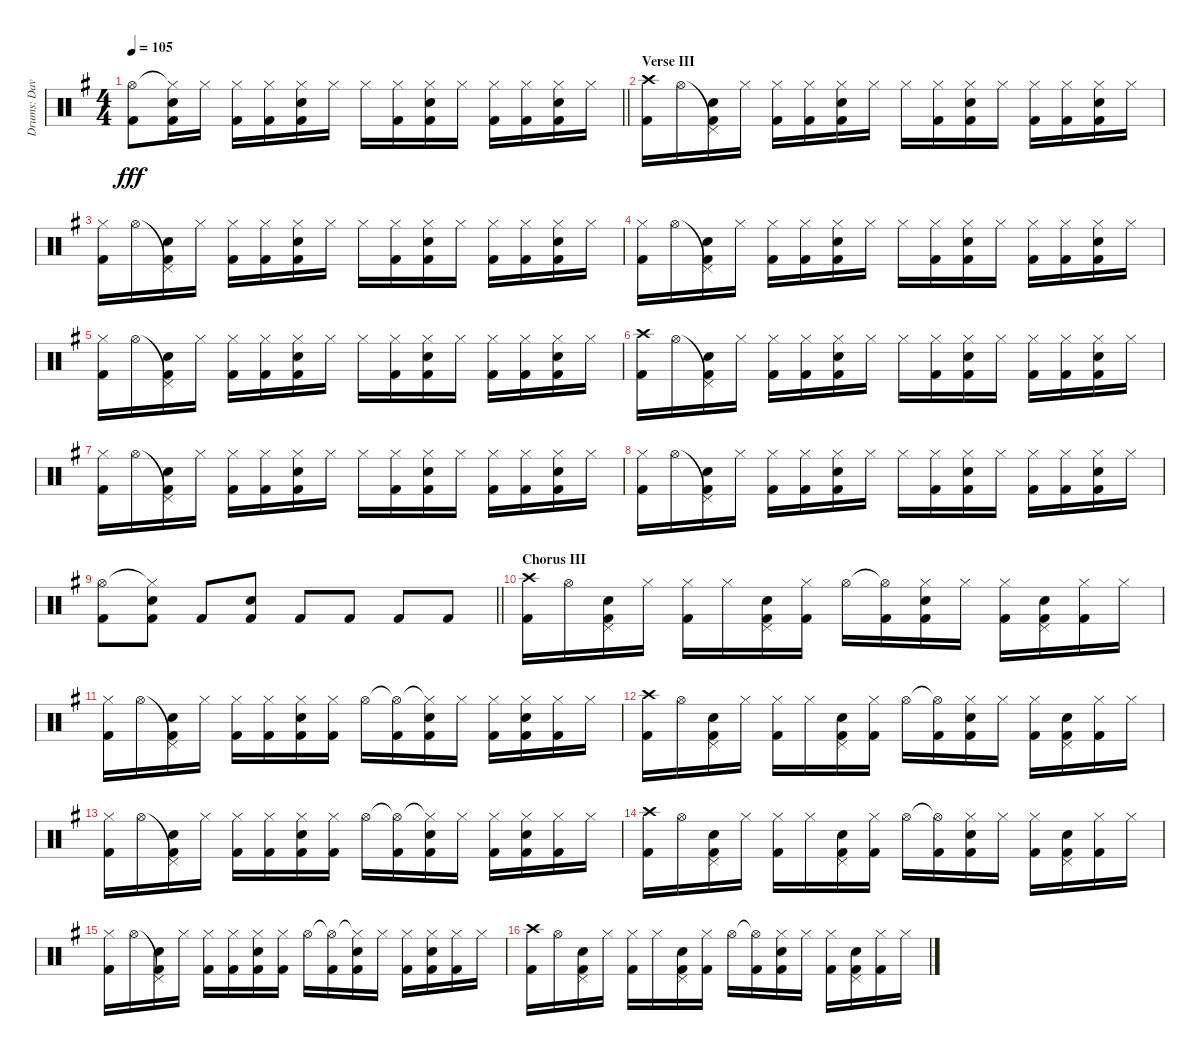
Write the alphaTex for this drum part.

\track ("Drums: Dave" "Drums: Dav") {instrument percussion}
\staff {score}
\articulation defaults
\ts (4 4)
\tempo 105
\clef neutral
\barLineRight lightlight
\ks g
("Hi-Hat (open)" "Kick (hit) 2").8{dy fff} ("Hi-Hat (closed)"{t} "Electric Snare (hit)" "Kick (hit) 2").16 "Hi-Hat (closed)".16 ("Hi-Hat (closed)" "Kick (hit) 2").16 ("Hi-Hat (closed)" "Kick (hit) 2").16 ("Hi-Hat (closed)" "Electric Snare (hit)" "Kick (hit) 2").16 "Hi-Hat (closed)".16 "Hi-Hat (closed)".16 ("Hi-Hat (closed)" "Kick (hit) 2").16 ("Hi-Hat (closed)" "Electric Snare (hit)" "Kick (hit) 2").16 "Hi-Hat (closed)".16 ("Hi-Hat (closed)" "Kick (hit) 2").16 ("Hi-Hat (closed)" "Kick (hit) 2").16 ("Hi-Hat (closed)" "Electric Snare (hit)" "Kick (hit) 2").16 "Hi-Hat (closed)".16 |
\section ("" "Verse III")
("Crash high (hit)" "Kick (hit) 2").16 "Hi-Hat (open)".16 ("Pedal Hi-Hat (hit)"{t} "Electric Snare (hit)" "Kick (hit) 2").16 "Hi-Hat (closed)".16 ("Hi-Hat (closed)" "Kick (hit) 2").16 ("Hi-Hat (closed)" "Kick (hit) 2").16 ("Hi-Hat (closed)" "Electric Snare (hit)" "Kick (hit) 2").16 "Hi-Hat (closed)".16 "Hi-Hat (closed)".16 ("Hi-Hat (closed)" "Kick (hit) 2").16 ("Hi-Hat (closed)" "Electric Snare (hit)" "Kick (hit) 2").16 "Hi-Hat (closed)".16 ("Hi-Hat (closed)" "Kick (hit) 2").16 ("Hi-Hat (closed)" "Kick (hit) 2").16 ("Hi-Hat (closed)" "Electric Snare (hit)" "Kick (hit) 2").16 "Hi-Hat (closed)".16 |
("Hi-Hat (closed)" "Kick (hit) 2").16 "Hi-Hat (open)".16 ("Pedal Hi-Hat (hit)"{t} "Electric Snare (hit)" "Kick (hit) 2").16 "Hi-Hat (closed)".16 ("Hi-Hat (closed)" "Kick (hit) 2").16 ("Hi-Hat (closed)" "Kick (hit) 2").16 ("Hi-Hat (closed)" "Electric Snare (hit)" "Kick (hit) 2").16 "Hi-Hat (closed)".16 "Hi-Hat (closed)".16 ("Hi-Hat (closed)" "Kick (hit) 2").16 ("Hi-Hat (closed)" "Electric Snare (hit)" "Kick (hit) 2").16 "Hi-Hat (closed)".16 ("Hi-Hat (closed)" "Kick (hit) 2").16 ("Hi-Hat (closed)" "Kick (hit) 2").16 ("Hi-Hat (closed)" "Electric Snare (hit)" "Kick (hit) 2").16 "Hi-Hat (closed)".16 |
("Hi-Hat (closed)" "Kick (hit) 2").16 "Hi-Hat (open)".16 ("Pedal Hi-Hat (hit)"{t} "Electric Snare (hit)" "Kick (hit) 2").16 "Hi-Hat (closed)".16 ("Hi-Hat (closed)" "Kick (hit) 2").16 ("Hi-Hat (closed)" "Kick (hit) 2").16 ("Hi-Hat (closed)" "Electric Snare (hit)" "Kick (hit) 2").16 "Hi-Hat (closed)".16 "Hi-Hat (closed)".16 ("Hi-Hat (closed)" "Kick (hit) 2").16 ("Hi-Hat (closed)" "Electric Snare (hit)" "Kick (hit) 2").16 "Hi-Hat (closed)".16 ("Hi-Hat (closed)" "Kick (hit) 2").16 ("Hi-Hat (closed)" "Kick (hit) 2").16 ("Hi-Hat (closed)" "Electric Snare (hit)" "Kick (hit) 2").16 "Hi-Hat (closed)".16 |
("Hi-Hat (closed)" "Kick (hit) 2").16 "Hi-Hat (open)".16 ("Pedal Hi-Hat (hit)"{t} "Electric Snare (hit)" "Kick (hit) 2").16 "Hi-Hat (closed)".16 ("Hi-Hat (closed)" "Kick (hit) 2").16 ("Hi-Hat (closed)" "Kick (hit) 2").16 ("Hi-Hat (closed)" "Electric Snare (hit)" "Kick (hit) 2").16 "Hi-Hat (closed)".16 "Hi-Hat (closed)".16 ("Hi-Hat (closed)" "Kick (hit) 2").16 ("Hi-Hat (closed)" "Electric Snare (hit)" "Kick (hit) 2").16 "Hi-Hat (closed)".16 ("Hi-Hat (closed)" "Kick (hit) 2").16 ("Hi-Hat (closed)" "Kick (hit) 2").16 ("Hi-Hat (closed)" "Electric Snare (hit)" "Kick (hit) 2").16 "Hi-Hat (closed)".16 |
("Crash high (hit)" "Kick (hit) 2").16 "Hi-Hat (open)".16 ("Pedal Hi-Hat (hit)"{t} "Electric Snare (hit)" "Kick (hit) 2").16 "Hi-Hat (closed)".16 ("Hi-Hat (closed)" "Kick (hit) 2").16 ("Hi-Hat (closed)" "Kick (hit) 2").16 ("Hi-Hat (closed)" "Electric Snare (hit)" "Kick (hit) 2").16 "Hi-Hat (closed)".16 "Hi-Hat (closed)".16 ("Hi-Hat (closed)" "Kick (hit) 2").16 ("Hi-Hat (closed)" "Electric Snare (hit)" "Kick (hit) 2").16 "Hi-Hat (closed)".16 ("Hi-Hat (closed)" "Kick (hit) 2").16 ("Hi-Hat (closed)" "Kick (hit) 2").16 ("Hi-Hat (closed)" "Electric Snare (hit)" "Kick (hit) 2").16 "Hi-Hat (closed)".16 |
("Hi-Hat (closed)" "Kick (hit) 2").16 "Hi-Hat (open)".16 ("Pedal Hi-Hat (hit)"{t} "Electric Snare (hit)" "Kick (hit) 2").16 "Hi-Hat (closed)".16 ("Hi-Hat (closed)" "Kick (hit) 2").16 ("Hi-Hat (closed)" "Kick (hit) 2").16 ("Hi-Hat (closed)" "Electric Snare (hit)" "Kick (hit) 2").16 "Hi-Hat (closed)".16 "Hi-Hat (closed)".16 ("Hi-Hat (closed)" "Kick (hit) 2").16 ("Hi-Hat (closed)" "Electric Snare (hit)" "Kick (hit) 2").16 "Hi-Hat (closed)".16 ("Hi-Hat (closed)" "Kick (hit) 2").16 ("Hi-Hat (closed)" "Kick (hit) 2").16 ("Hi-Hat (closed)" "Electric Snare (hit)" "Kick (hit) 2").16 "Hi-Hat (closed)".16 |
("Hi-Hat (closed)" "Kick (hit) 2").16 "Hi-Hat (open)".16 ("Pedal Hi-Hat (hit)"{t} "Electric Snare (hit)" "Kick (hit) 2").16 "Hi-Hat (closed)".16 ("Hi-Hat (closed)" "Kick (hit) 2").16 ("Hi-Hat (closed)" "Kick (hit) 2").16 ("Hi-Hat (closed)" "Electric Snare (hit)" "Kick (hit) 2").16 "Hi-Hat (closed)".16 "Hi-Hat (closed)".16 ("Hi-Hat (closed)" "Kick (hit) 2").16 ("Hi-Hat (closed)" "Electric Snare (hit)" "Kick (hit) 2").16 "Hi-Hat (closed)".16 ("Hi-Hat (closed)" "Kick (hit) 2").16 ("Hi-Hat (closed)" "Kick (hit) 2").16 ("Hi-Hat (closed)" "Electric Snare (hit)" "Kick (hit) 2").16 "Hi-Hat (closed)".16 |
\barLineRight lightlight
("Hi-Hat (open)" "Kick (hit) 2").8 ("Hi-Hat (closed)"{t} "Electric Snare (hit)" "Kick (hit) 2").8 "Kick (hit) 2".8 ("Electric Snare (hit)" "Kick (hit) 2").8 "Kick (hit) 2".8 "Kick (hit) 2".8 "Kick (hit) 2".8 "Kick (hit) 2".8 |
\section ("" "Chorus III")
("Crash high (hit)" "Kick (hit) 2").16 "Hi-Hat (open)".16 ("Pedal Hi-Hat (hit)" "Electric Snare (hit)" "Kick (hit) 2").16 "Hi-Hat (closed)".16 ("Hi-Hat (closed)" "Kick (hit) 2").16 "Hi-Hat (closed)".16 ("Pedal Hi-Hat (hit)" "Electric Snare (hit)" "Kick (hit) 2").16 ("Hi-Hat (closed)" "Kick (hit) 2").16 "Hi-Hat (open)".16 ("Hi-Hat (open)"{t} "Kick (hit) 2").16 ("Hi-Hat (closed)" "Electric Snare (hit)" "Kick (hit) 2").16 "Hi-Hat (closed)".16 ("Hi-Hat (closed)" "Kick (hit) 2").16 ("Pedal Hi-Hat (hit)" "Electric Snare (hit)" "Kick (hit) 2").16 ("Hi-Hat (closed)" "Kick (hit) 2").16 "Hi-Hat (closed)".16 |
("Hi-Hat (closed)" "Kick (hit) 2").16 "Hi-Hat (open)".16 ("Pedal Hi-Hat (hit)"{t} "Electric Snare (hit)" "Kick (hit) 2").16 "Hi-Hat (closed)".16 ("Hi-Hat (closed)" "Kick (hit) 2").16 ("Hi-Hat (closed)" "Kick (hit) 2").16 ("Hi-Hat (closed)" "Electric Snare (hit)" "Kick (hit) 2").16 ("Hi-Hat (closed)" "Kick (hit) 2").16 "Hi-Hat (open)".16 ("Hi-Hat (open)"{t} "Kick (hit) 2").16 ("Hi-Hat (closed)"{t} "Electric Snare (hit)" "Kick (hit) 2").16 "Hi-Hat (closed)".16 ("Hi-Hat (closed)" "Kick (hit) 2").16 ("Hi-Hat (closed)" "Electric Snare (hit)" "Kick (hit) 2").16 ("Hi-Hat (closed)" "Kick (hit) 2").16 "Hi-Hat (closed)".16 |
("Crash high (hit)" "Kick (hit) 2").16 "Hi-Hat (open)".16 ("Pedal Hi-Hat (hit)" "Electric Snare (hit)" "Kick (hit) 2").16 "Hi-Hat (closed)".16 ("Hi-Hat (closed)" "Kick (hit) 2").16 "Hi-Hat (closed)".16 ("Pedal Hi-Hat (hit)" "Electric Snare (hit)" "Kick (hit) 2").16 ("Hi-Hat (closed)" "Kick (hit) 2").16 "Hi-Hat (open)".16 ("Hi-Hat (open)"{t} "Kick (hit) 2").16 ("Hi-Hat (closed)" "Electric Snare (hit)" "Kick (hit) 2").16 "Hi-Hat (closed)".16 ("Hi-Hat (closed)" "Kick (hit) 2").16 ("Pedal Hi-Hat (hit)" "Electric Snare (hit)" "Kick (hit) 2").16 ("Hi-Hat (closed)" "Kick (hit) 2").16 "Hi-Hat (closed)".16 |
("Hi-Hat (closed)" "Kick (hit) 2").16 "Hi-Hat (open)".16 ("Pedal Hi-Hat (hit)"{t} "Electric Snare (hit)" "Kick (hit) 2").16 "Hi-Hat (closed)".16 ("Hi-Hat (closed)" "Kick (hit) 2").16 ("Hi-Hat (closed)" "Kick (hit) 2").16 ("Hi-Hat (closed)" "Electric Snare (hit)" "Kick (hit) 2").16 ("Hi-Hat (closed)" "Kick (hit) 2").16 "Hi-Hat (open)".16 ("Hi-Hat (open)"{t} "Kick (hit) 2").16 ("Hi-Hat (closed)"{t} "Electric Snare (hit)" "Kick (hit) 2").16 "Hi-Hat (closed)".16 ("Hi-Hat (closed)" "Kick (hit) 2").16 ("Hi-Hat (closed)" "Electric Snare (hit)" "Kick (hit) 2").16 ("Hi-Hat (closed)" "Kick (hit) 2").16 "Hi-Hat (closed)".16 |
("Crash high (hit)" "Kick (hit) 2").16 "Hi-Hat (open)".16 ("Pedal Hi-Hat (hit)" "Electric Snare (hit)" "Kick (hit) 2").16 "Hi-Hat (closed)".16 ("Hi-Hat (closed)" "Kick (hit) 2").16 "Hi-Hat (closed)".16 ("Pedal Hi-Hat (hit)" "Electric Snare (hit)" "Kick (hit) 2").16 ("Hi-Hat (closed)" "Kick (hit) 2").16 "Hi-Hat (open)".16 ("Hi-Hat (open)"{t} "Kick (hit) 2").16 ("Hi-Hat (closed)" "Electric Snare (hit)" "Kick (hit) 2").16 "Hi-Hat (closed)".16 ("Hi-Hat (closed)" "Kick (hit) 2").16 ("Pedal Hi-Hat (hit)" "Electric Snare (hit)" "Kick (hit) 2").16 ("Hi-Hat (closed)" "Kick (hit) 2").16 "Hi-Hat (closed)".16 |
("Hi-Hat (closed)" "Kick (hit) 2").16 "Hi-Hat (open)".16 ("Pedal Hi-Hat (hit)"{t} "Electric Snare (hit)" "Kick (hit) 2").16 "Hi-Hat (closed)".16 ("Hi-Hat (closed)" "Kick (hit) 2").16 ("Hi-Hat (closed)" "Kick (hit) 2").16 ("Hi-Hat (closed)" "Electric Snare (hit)" "Kick (hit) 2").16 ("Hi-Hat (closed)" "Kick (hit) 2").16 "Hi-Hat (open)".16 ("Hi-Hat (open)"{t} "Kick (hit) 2").16 ("Hi-Hat (closed)"{t} "Electric Snare (hit)" "Kick (hit) 2").16 "Hi-Hat (closed)".16 ("Hi-Hat (closed)" "Kick (hit) 2").16 ("Hi-Hat (closed)" "Electric Snare (hit)" "Kick (hit) 2").16 ("Hi-Hat (closed)" "Kick (hit) 2").16 "Hi-Hat (closed)".16 |
("Crash high (hit)" "Kick (hit) 2").16 "Hi-Hat (open)".16 ("Pedal Hi-Hat (hit)" "Electric Snare (hit)" "Kick (hit) 2").16 "Hi-Hat (closed)".16 ("Hi-Hat (closed)" "Kick (hit) 2").16 "Hi-Hat (closed)".16 ("Pedal Hi-Hat (hit)" "Electric Snare (hit)" "Kick (hit) 2").16 ("Hi-Hat (closed)" "Kick (hit) 2").16 "Hi-Hat (open)".16 ("Hi-Hat (open)"{t} "Kick (hit) 2").16 ("Hi-Hat (closed)" "Electric Snare (hit)" "Kick (hit) 2").16 "Hi-Hat (closed)".16 ("Hi-Hat (closed)" "Kick (hit) 2").16 ("Pedal Hi-Hat (hit)" "Electric Snare (hit)" "Kick (hit) 2").16 ("Hi-Hat (closed)" "Kick (hit) 2").16 "Hi-Hat (closed)".16
